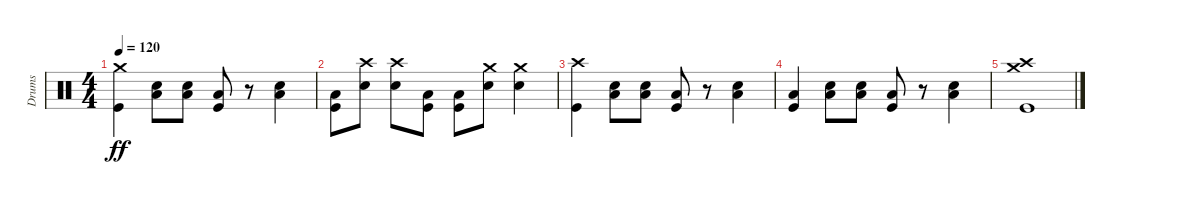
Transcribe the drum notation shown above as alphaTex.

\track ("Drums" "Drums") {instrument percussion}
\staff {score}
\articulation defaults
\ts (4 4)
\tempo 120
\clef neutral
\ks c
("Crash medium (hit)" "Kick (hit)").4{dy ff} ("Low Floor Tom (hit)" "Snare (hit) 2").8 ("Low Floor Tom (hit)" "Snare (hit) 2").8 ("Low Floor Tom (hit)" "Kick (hit)").8 r.8 ("Low Floor Tom (hit)" "Snare (hit) 2").4 |
("Low Floor Tom (hit)" "Kick (hit)").8 ("Crash high (hit)" "Snare (hit) 2").8 ("Crash high (hit)" "Snare (hit) 2").8 ("Low Floor Tom (hit)" "Kick (hit)").8 ("Low Floor Tom (hit)" "Kick (hit)").8 ("Crash medium (hit)" "Snare (hit) 2").8 ("Crash medium (hit)" "Snare (hit) 2").4 |
("Crash high (hit)" "Kick (hit)").4 ("Low Floor Tom (hit)" "Snare (hit) 2").8 ("Low Floor Tom (hit)" "Snare (hit) 2").8 ("Low Floor Tom (hit)" "Kick (hit)").8 r.8 ("Low Floor Tom (hit)" "Snare (hit) 2").4 |
("Low Floor Tom (hit)" "Kick (hit)").4 ("Low Floor Tom (hit)" "Snare (hit) 2").8 ("Low Floor Tom (hit)" "Snare (hit) 2").8 ("Low Floor Tom (hit)" "Kick (hit)").8 r.8 ("Low Floor Tom (hit)" "Snare (hit) 2").4 |
("Crash medium (hit)" "Crash high (hit)" "Kick (hit)").1
